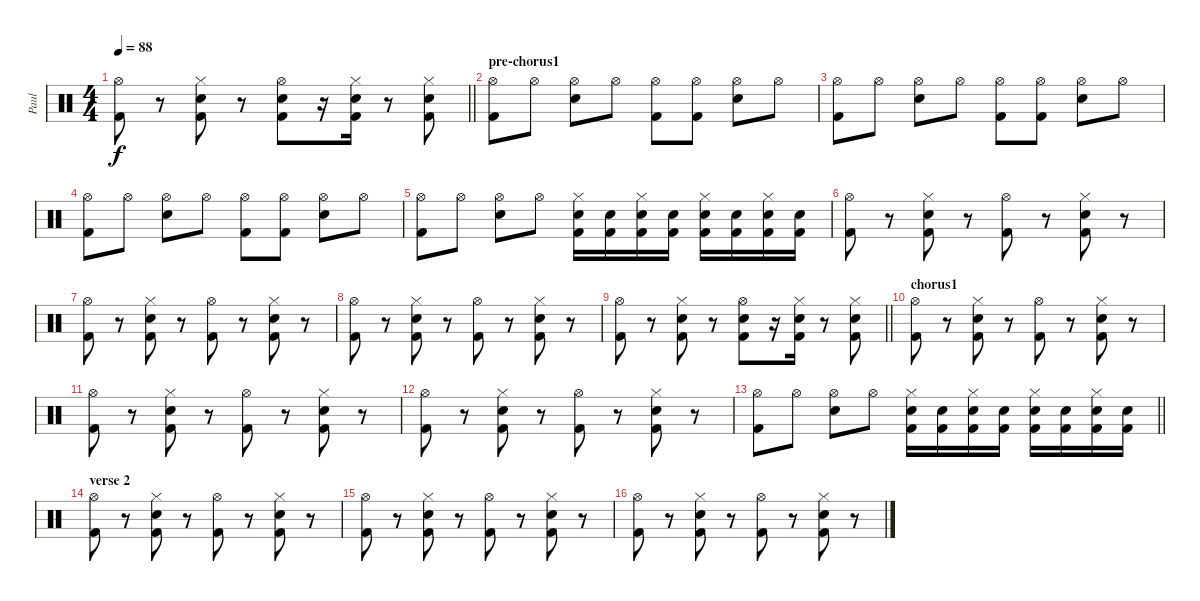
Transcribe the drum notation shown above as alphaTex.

\track ("Paul" "Paul") {instrument percussion}
\staff {score}
\articulation defaults
\ts (4 4)
\tempo 88
\clef neutral
\barLineRight lightlight
\ks c
("Hi-Hat (open)" "Kick (hit) 2").8{dy f} r.8 ("Snare (hit) 2" "Hi-Hat (closed)" "Kick (hit) 2").8 r.8 ("Snare (hit) 2" "Hi-Hat (open)" "Kick (hit) 2").8 r.16 ("Snare (hit) 2" "Hi-Hat (closed)" "Kick (hit) 2").16 r.8 ("Snare (hit) 2" "Hi-Hat (closed)" "Kick (hit) 2").8 |
\section ("" "pre-chorus1")
("Hi-Hat (open)" "Kick (hit) 2").8 "Hi-Hat (open)".8 ("Snare (hit) 2" "Hi-Hat (open)").8 "Hi-Hat (open)".8 ("Hi-Hat (open)" "Kick (hit) 2").8 ("Hi-Hat (open)" "Kick (hit) 2").8 ("Snare (hit) 2" "Hi-Hat (open)").8 "Hi-Hat (open)".8 |
("Hi-Hat (open)" "Kick (hit) 2").8 "Hi-Hat (open)".8 ("Snare (hit) 2" "Hi-Hat (open)").8 "Hi-Hat (open)".8 ("Hi-Hat (open)" "Kick (hit) 2").8 ("Hi-Hat (open)" "Kick (hit) 2").8 ("Snare (hit) 2" "Hi-Hat (open)").8 "Hi-Hat (open)".8 |
("Hi-Hat (open)" "Kick (hit) 2").8 "Hi-Hat (open)".8 ("Snare (hit) 2" "Hi-Hat (open)").8 "Hi-Hat (open)".8 ("Hi-Hat (open)" "Kick (hit) 2").8 ("Hi-Hat (open)" "Kick (hit) 2").8 ("Snare (hit) 2" "Hi-Hat (open)").8 "Hi-Hat (open)".8 |
("Hi-Hat (open)" "Kick (hit) 2").8 "Hi-Hat (open)".8 ("Snare (hit) 2" "Hi-Hat (open)").8 "Hi-Hat (open)".8 ("Snare (hit) 2" "Hi-Hat (closed)" "Kick (hit) 2").16 ("Snare (hit) 2" "Kick (hit) 2").16 ("Snare (hit) 2" "Hi-Hat (closed)" "Kick (hit) 2").16 ("Snare (hit) 2" "Kick (hit) 2").16 ("Snare (hit) 2" "Hi-Hat (closed)" "Kick (hit) 2").16 ("Snare (hit) 2" "Kick (hit) 2").16 ("Snare (hit) 2" "Hi-Hat (closed)" "Kick (hit) 2").16 ("Snare (hit) 2" "Kick (hit) 2").16 |
("Hi-Hat (open)" "Kick (hit) 2").8 r.8 ("Snare (hit) 2" "Hi-Hat (closed)" "Kick (hit) 2").8 r.8 ("Hi-Hat (open)" "Kick (hit) 2").8 r.8 ("Snare (hit) 2" "Hi-Hat (closed)" "Kick (hit) 2").8 r.8 |
("Hi-Hat (open)" "Kick (hit) 2").8 r.8 ("Snare (hit) 2" "Hi-Hat (closed)" "Kick (hit) 2").8 r.8 ("Hi-Hat (open)" "Kick (hit) 2").8 r.8 ("Snare (hit) 2" "Hi-Hat (closed)" "Kick (hit) 2").8 r.8 |
("Hi-Hat (open)" "Kick (hit) 2").8 r.8 ("Snare (hit) 2" "Hi-Hat (closed)" "Kick (hit) 2").8 r.8 ("Hi-Hat (open)" "Kick (hit) 2").8 r.8 ("Snare (hit) 2" "Hi-Hat (closed)" "Kick (hit) 2").8 r.8 |
\barLineRight lightlight
("Hi-Hat (open)" "Kick (hit) 2").8 r.8 ("Snare (hit) 2" "Hi-Hat (closed)" "Kick (hit) 2").8 r.8 ("Snare (hit) 2" "Hi-Hat (open)" "Kick (hit) 2").8 r.16 ("Snare (hit) 2" "Hi-Hat (closed)" "Kick (hit) 2").16 r.8 ("Snare (hit) 2" "Hi-Hat (closed)" "Kick (hit) 2").8 |
\section ("" "chorus1")
("Hi-Hat (open)" "Kick (hit) 2").8 r.8 ("Snare (hit) 2" "Hi-Hat (closed)" "Kick (hit) 2").8 r.8 ("Hi-Hat (open)" "Kick (hit) 2").8 r.8 ("Snare (hit) 2" "Hi-Hat (closed)" "Kick (hit) 2").8 r.8 |
("Hi-Hat (open)" "Kick (hit) 2").8 r.8 ("Snare (hit) 2" "Hi-Hat (closed)" "Kick (hit) 2").8 r.8 ("Hi-Hat (open)" "Kick (hit) 2").8 r.8 ("Snare (hit) 2" "Hi-Hat (closed)" "Kick (hit) 2").8 r.8 |
("Hi-Hat (open)" "Kick (hit) 2").8 r.8 ("Snare (hit) 2" "Hi-Hat (closed)" "Kick (hit) 2").8 r.8 ("Hi-Hat (open)" "Kick (hit) 2").8 r.8 ("Snare (hit) 2" "Hi-Hat (closed)" "Kick (hit) 2").8 r.8 |
\barLineRight lightlight
("Hi-Hat (open)" "Kick (hit) 2").8 "Hi-Hat (open)".8 ("Snare (hit) 2" "Hi-Hat (open)").8 "Hi-Hat (open)".8 ("Snare (hit) 2" "Hi-Hat (closed)" "Kick (hit) 2").16 ("Snare (hit) 2" "Kick (hit) 2").16 ("Snare (hit) 2" "Hi-Hat (closed)" "Kick (hit) 2").16 ("Snare (hit) 2" "Kick (hit) 2").16 ("Snare (hit) 2" "Hi-Hat (closed)" "Kick (hit) 2").16 ("Snare (hit) 2" "Kick (hit) 2").16 ("Snare (hit) 2" "Hi-Hat (closed)" "Kick (hit) 2").16 ("Snare (hit) 2" "Kick (hit) 2").16 |
\section ("" "verse 2")
("Hi-Hat (open)" "Kick (hit) 2").8 r.8 ("Snare (hit) 2" "Hi-Hat (closed)" "Kick (hit) 2").8 r.8 ("Hi-Hat (open)" "Kick (hit) 2").8 r.8 ("Snare (hit) 2" "Hi-Hat (closed)" "Kick (hit) 2").8 r.8 |
("Hi-Hat (open)" "Kick (hit) 2").8 r.8 ("Snare (hit) 2" "Hi-Hat (closed)" "Kick (hit) 2").8 r.8 ("Hi-Hat (open)" "Kick (hit) 2").8 r.8 ("Snare (hit) 2" "Hi-Hat (closed)" "Kick (hit) 2").8 r.8 |
("Hi-Hat (open)" "Kick (hit) 2").8 r.8 ("Snare (hit) 2" "Hi-Hat (closed)" "Kick (hit) 2").8 r.8 ("Hi-Hat (open)" "Kick (hit) 2").8 r.8 ("Snare (hit) 2" "Hi-Hat (closed)" "Kick (hit) 2").8 r.8
